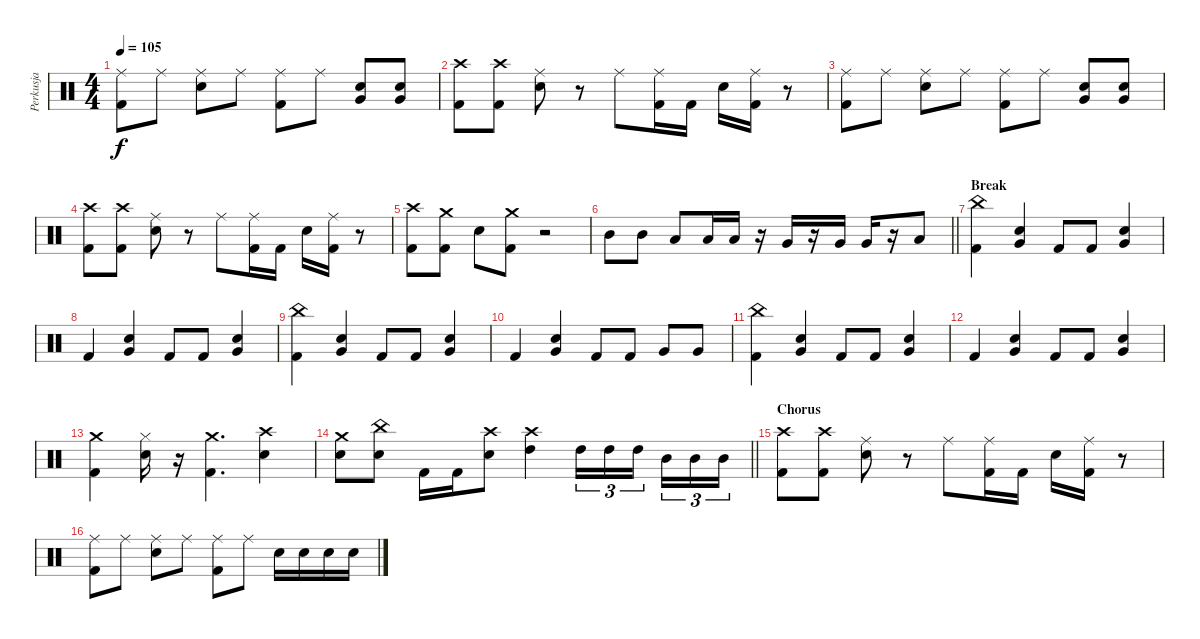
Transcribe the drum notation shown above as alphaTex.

\track ("Perkusja" "Perkusja") {instrument percussion}
\staff {score}
\articulation defaults
\ts (4 4)
\tempo 105
\clef neutral
\ks c
("Ride (middle)" "Kick (hit) 2").8{dy f} "Ride (middle)".8 ("Ride (middle)" "Snare (hit) 2").8 "Ride (middle)".8 ("Ride (middle)" "Kick (hit) 2").8 "Ride (middle)".8 ("Very Low Tom (hit)" "Snare (hit) 2").8 ("Very Low Tom (hit)" "Snare (hit) 2").8 |
("Kick (hit) 2" "Crash high (hit)").8 ("Kick (hit) 2" "Crash high (hit)").8 ("Ride (middle)" "Snare (hit) 2").8 r.8 "Ride (middle)".8 ("Kick (hit) 2" "Ride (middle)").16 "Kick (hit) 2".16 "Snare (hit) 2".16 ("Ride (middle)" "Kick (hit) 2").16 r.8 |
("Ride (middle)" "Kick (hit) 2").8 "Ride (middle)".8 ("Ride (middle)" "Snare (hit) 2").8 "Ride (middle)".8 ("Ride (middle)" "Kick (hit) 2").8 "Ride (middle)".8 ("Snare (hit) 2" "Very Low Tom (hit)").8 ("Snare (hit) 2" "Very Low Tom (hit)").8 |
("Kick (hit) 2" "Crash high (hit)").8 ("Kick (hit) 2" "Crash high (hit)").8 ("Ride (middle)" "Snare (hit) 2").8 r.8 "Ride (middle)".8 ("Kick (hit) 2" "Ride (middle)").16 "Kick (hit) 2".16 "Snare (hit) 2".16 ("Ride (middle)" "Kick (hit) 2").16 r.8 |
("Crash high (hit)" "Kick (hit) 2").8 ("Crash medium (hit)" "Kick (hit) 2").8 "Snare (hit) 2".8 ("Crash medium (hit)" "Kick (hit) 2").8 r.2 |
\barLineRight lightlight "Mid Tom (hit)".8 "Mid Tom (hit)".8 "Low Tom (hit)".8 "Low Tom (hit)".16 "Low Tom (hit)".16
r.16 "Very Low Tom (hit)".16 r.16 "Very Low Tom (hit)".16 "Very Low Tom (hit)".16 r.16 "Low Floor Tom (hit)".8 |
\section ("" "Break")
("China (hit)" "Kick (hit) 2").4 ("Snare (hit) 2" "Very Low Tom (hit)").4 "Kick (hit) 2".8 "Kick (hit) 2".8 ("Snare (hit) 2" "Very Low Tom (hit)").4 |
"Kick (hit) 2".4 ("Snare (hit) 2" "Very Low Tom (hit)").4 "Kick (hit) 2".8 "Kick (hit) 2".8 ("Snare (hit) 2" "Very Low Tom (hit)").4 |
("China (hit)" "Kick (hit) 2").4 ("Snare (hit) 2" "Very Low Tom (hit)").4 "Kick (hit) 2".8 "Kick (hit) 2".8 ("Snare (hit) 2" "Very Low Tom (hit)").4 |
"Kick (hit) 2".4 ("Snare (hit) 2" "Very Low Tom (hit)").4 "Kick (hit) 2".8 "Kick (hit) 2".8 "Very Low Tom (hit)".8 "Very Low Tom (hit)".8 |
("China (hit)" "Kick (hit) 2").4 ("Snare (hit) 2" "Very Low Tom (hit)").4 "Kick (hit) 2".8 "Kick (hit) 2".8 ("Snare (hit) 2" "Very Low Tom (hit)").4 |
"Kick (hit) 2".4 ("Snare (hit) 2" "Very Low Tom (hit)").4 "Kick (hit) 2".8 "Kick (hit) 2".8 ("Snare (hit) 2" "Very Low Tom (hit)").4 |
("Kick (hit) 2" "Crash medium (hit)").4 ("Snare (hit) 2" "Hi-Hat (closed)").16 r.16 ("Kick (hit) 2" "Crash medium (hit)").4{d} ("Snare (hit) 2" "Crash high (hit)").4 |
\barLineRight lightlight
("Crash medium (hit)" "Snare (hit) 2").8 ("China (hit)" "Snare (hit) 2").8 "Kick (hit) 2".16 "Kick (hit) 2".16 ("Crash high (hit)" "Snare (hit) 2").8 ("Crash high (hit)" "High Tom (hit)").4 "High Tom (hit)".16{tu (3 2)} "High Tom (hit)".16{tu (3 2)} "High Tom (hit)".16{tu (3 2) beam splitsecondary} "Mid Tom (hit)".16{tu (3 2)} "Mid Tom (hit)".16{tu (3 2)} "Mid Tom (hit)".16{tu (3 2)} |
\section ("" "Chorus")
("Kick (hit) 2" "Crash high (hit)").8 ("Kick (hit) 2" "Crash high (hit)").8 ("Ride (middle)" "Snare (hit) 2").8 r.8 "Ride (middle)".8 ("Kick (hit) 2" "Ride (middle)").16 "Kick (hit) 2".16 "Snare (hit) 2".16 ("Ride (middle)" "Kick (hit) 2").16 r.8 |
("Ride (middle)" "Kick (hit) 2").8 "Ride (middle)".8 ("Ride (middle)" "Snare (hit) 2").8 "Ride (middle)".8 ("Ride (middle)" "Kick (hit) 2").8 "Ride (middle)".8 "Snare (hit) 2".16 "Snare (hit) 2".16 "Snare (hit) 2".16 "Snare (hit) 2".16
